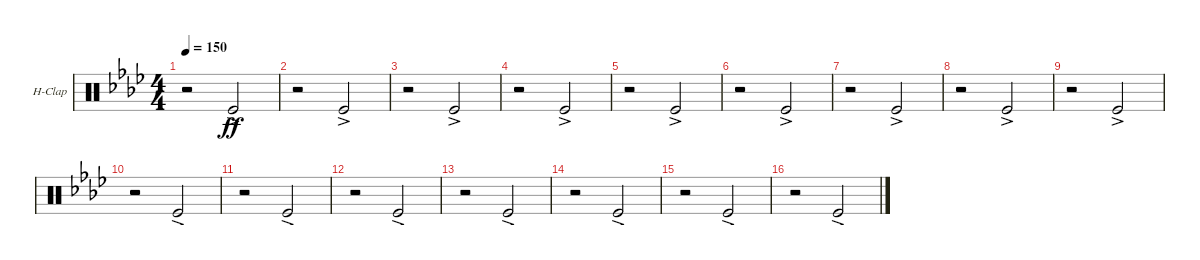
\bracketExtendMode groupsimilarinstruments
\firstSystemTrackNameOrientation horizontal
\otherSystemsTrackNameOrientation horizontal
\track ("Hand Clap" "H-Clap") {instrument percussion}
\staff {score}
\articulation defaults
\ts (4 4)
\tempo 150
\clef neutral
\scale
0.333333
\ks ab
r.2{dy ff} "Kick (hit)"{ac}.2 |
\scale
0.333333 r.2 "Kick (hit)"{ac}.2 |
\scale
0.333333 r.2 "Kick (hit)"{ac}.2 |
\scale
0.333333 r.2 "Kick (hit)"{ac}.2 |
\scale
0.333333 r.2 "Kick (hit)"{ac}.2 |
\scale
0.333333 r.2 "Kick (hit)"{ac}.2 |
\scale
0.333333 r.2 "Kick (hit)"{ac}.2 |
\scale
0.333333 r.2 "Kick (hit)"{ac}.2 |
\scale
0.333333 r.2 "Kick (hit)"{ac}.2 |
\scale
0.333333 r.2 "Kick (hit)"{ac}.2 |
\scale
0.333333 r.2 "Kick (hit)"{ac}.2 |
\scale
0.333333 r.2 "Kick (hit)"{ac}.2 |
\scale
0.333333 r.2 "Kick (hit)"{ac}.2 |
\scale
0.333333 r.2 "Kick (hit)"{ac}.2 |
r.2 "Kick (hit)"{ac}.2 |
r.2 "Kick (hit)"{ac}.2
